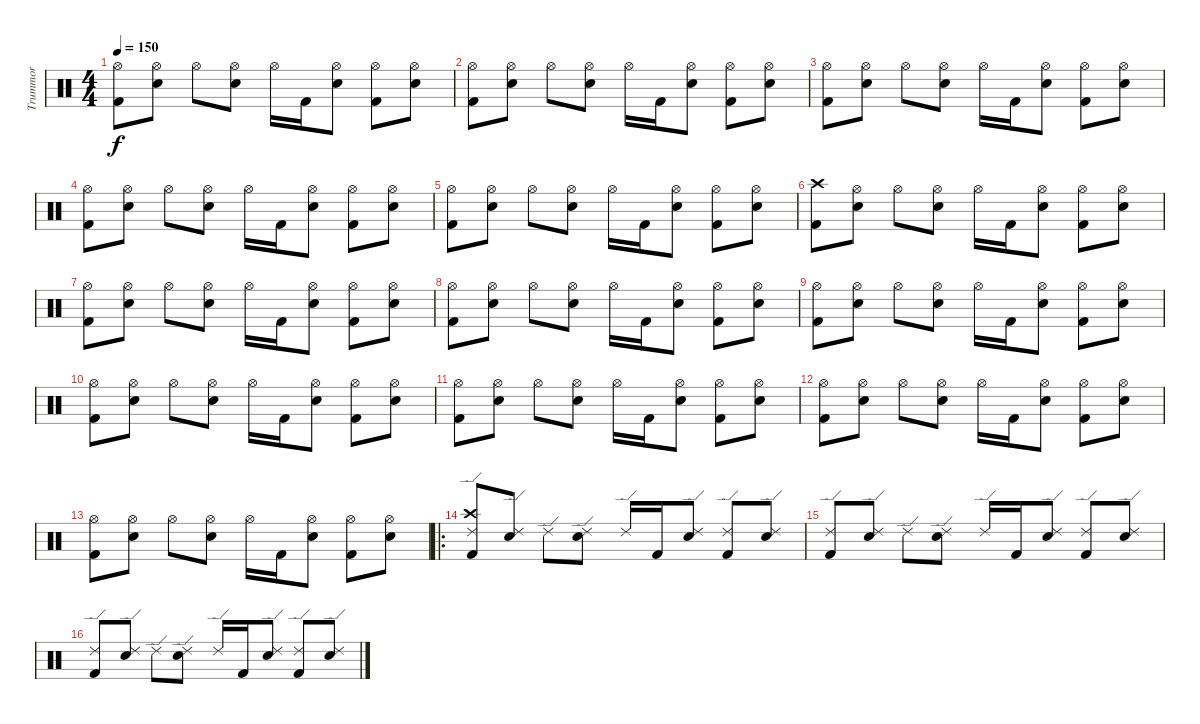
\track ("Trummor" "Trummor") {instrument percussion}
\staff {score}
\articulation defaults
\ts (4 4)
\tempo 150
\clef neutral
\ks c
("Hi-Hat (open)" "Kick (hit) 2").8{dy f} ("Hi-Hat (open)" "Snare (hit) 2").8 "Hi-Hat (open)".8 ("Hi-Hat (open)" "Snare (hit) 2").8 "Hi-Hat (open)".16 "Kick (hit) 2".16 ("Hi-Hat (open)" "Snare (hit) 2").8 ("Hi-Hat (open)" "Kick (hit) 2").8 ("Hi-Hat (open)" "Snare (hit) 2").8 |
("Hi-Hat (open)" "Kick (hit) 2").8 ("Hi-Hat (open)" "Snare (hit) 2").8 "Hi-Hat (open)".8 ("Hi-Hat (open)" "Snare (hit) 2").8 "Hi-Hat (open)".16 "Kick (hit) 2".16 ("Hi-Hat (open)" "Snare (hit) 2").8 ("Hi-Hat (open)" "Kick (hit) 2").8 ("Hi-Hat (open)" "Snare (hit) 2").8 |
("Hi-Hat (open)" "Kick (hit) 2").8 ("Hi-Hat (open)" "Snare (hit) 2").8 "Hi-Hat (open)".8 ("Hi-Hat (open)" "Snare (hit) 2").8 "Hi-Hat (open)".16 "Kick (hit) 2".16 ("Hi-Hat (open)" "Snare (hit) 2").8 ("Hi-Hat (open)" "Kick (hit) 2").8 ("Hi-Hat (open)" "Snare (hit) 2").8 |
("Hi-Hat (open)" "Kick (hit) 2").8 ("Hi-Hat (open)" "Snare (hit) 2").8 "Hi-Hat (open)".8 ("Hi-Hat (open)" "Snare (hit) 2").8 "Hi-Hat (open)".16 "Kick (hit) 2".16 ("Hi-Hat (open)" "Snare (hit) 2").8 ("Hi-Hat (open)" "Kick (hit) 2").8 ("Hi-Hat (open)" "Snare (hit) 2").8 |
("Hi-Hat (open)" "Kick (hit) 2").8 ("Hi-Hat (open)" "Snare (hit) 2").8 "Hi-Hat (open)".8 ("Hi-Hat (open)" "Snare (hit) 2").8 "Hi-Hat (open)".16 "Kick (hit) 2".16 ("Hi-Hat (open)" "Snare (hit) 2").8 ("Hi-Hat (open)" "Kick (hit) 2").8 ("Hi-Hat (open)" "Snare (hit) 2").8 |
("Crash high (hit)" "Kick (hit) 2").8 ("Hi-Hat (open)" "Snare (hit) 2").8 "Hi-Hat (open)".8 ("Hi-Hat (open)" "Snare (hit) 2").8 "Hi-Hat (open)".16 "Kick (hit) 2".16 ("Hi-Hat (open)" "Snare (hit) 2").8 ("Hi-Hat (open)" "Kick (hit) 2").8 ("Hi-Hat (open)" "Snare (hit) 2").8 |
("Hi-Hat (open)" "Kick (hit) 2").8 ("Hi-Hat (open)" "Snare (hit) 2").8 "Hi-Hat (open)".8 ("Hi-Hat (open)" "Snare (hit) 2").8 "Hi-Hat (open)".16 "Kick (hit) 2".16 ("Hi-Hat (open)" "Snare (hit) 2").8 ("Hi-Hat (open)" "Kick (hit) 2").8 ("Hi-Hat (open)" "Snare (hit) 2").8 |
("Hi-Hat (open)" "Kick (hit) 2").8 ("Hi-Hat (open)" "Snare (hit) 2").8 "Hi-Hat (open)".8 ("Hi-Hat (open)" "Snare (hit) 2").8 "Hi-Hat (open)".16 "Kick (hit) 2".16 ("Hi-Hat (open)" "Snare (hit) 2").8 ("Hi-Hat (open)" "Kick (hit) 2").8 ("Hi-Hat (open)" "Snare (hit) 2").8 |
("Hi-Hat (open)" "Kick (hit) 2").8 ("Hi-Hat (open)" "Snare (hit) 2").8 "Hi-Hat (open)".8 ("Hi-Hat (open)" "Snare (hit) 2").8 "Hi-Hat (open)".16 "Kick (hit) 2".16 ("Hi-Hat (open)" "Snare (hit) 2").8 ("Hi-Hat (open)" "Kick (hit) 2").8 ("Hi-Hat (open)" "Snare (hit) 2").8 |
("Hi-Hat (open)" "Kick (hit) 2").8 ("Hi-Hat (open)" "Snare (hit) 2").8 "Hi-Hat (open)".8 ("Hi-Hat (open)" "Snare (hit) 2").8 "Hi-Hat (open)".16 "Kick (hit) 2".16 ("Hi-Hat (open)" "Snare (hit) 2").8 ("Hi-Hat (open)" "Kick (hit) 2").8 ("Hi-Hat (open)" "Snare (hit) 2").8 |
("Hi-Hat (open)" "Kick (hit) 2").8 ("Hi-Hat (open)" "Snare (hit) 2").8 "Hi-Hat (open)".8 ("Hi-Hat (open)" "Snare (hit) 2").8 "Hi-Hat (open)".16 "Kick (hit) 2".16 ("Hi-Hat (open)" "Snare (hit) 2").8 ("Hi-Hat (open)" "Kick (hit) 2").8 ("Hi-Hat (open)" "Snare (hit) 2").8 |
("Hi-Hat (open)" "Kick (hit) 2").8 ("Hi-Hat (open)" "Snare (hit) 2").8 "Hi-Hat (open)".8 ("Hi-Hat (open)" "Snare (hit) 2").8 "Hi-Hat (open)".16 "Kick (hit) 2".16 ("Hi-Hat (open)" "Snare (hit) 2").8 ("Hi-Hat (open)" "Kick (hit) 2").8 ("Hi-Hat (open)" "Snare (hit) 2").8 |
("Hi-Hat (open)" "Kick (hit) 2").8 ("Hi-Hat (open)" "Snare (hit) 2").8 "Hi-Hat (open)".8 ("Hi-Hat (open)" "Snare (hit) 2").8 "Hi-Hat (open)".16 "Kick (hit) 2".16 ("Hi-Hat (open)" "Snare (hit) 2").8 ("Hi-Hat (open)" "Kick (hit) 2").8 ("Hi-Hat (open)" "Snare (hit) 2").8 |
\ro
("Ride (edge) 2" "Crash high (hit)" "Kick (hit) 2").8 ("Ride (edge) 2" "Snare (hit) 2").8 "Ride (edge) 2".8 ("Ride (edge) 2" "Snare (hit) 2").8 "Ride (edge) 2".16 "Kick (hit) 2".16 ("Ride (edge) 2" "Snare (hit) 2").8 ("Ride (edge) 2" "Kick (hit) 2").8 ("Ride (edge) 2" "Snare (hit) 2").8 |
("Ride (edge) 2" "Kick (hit) 2").8 ("Ride (edge) 2" "Snare (hit) 2").8 "Ride (edge) 2".8 ("Ride (edge) 2" "Snare (hit) 2").8 "Ride (edge) 2".16 "Kick (hit) 2".16 ("Ride (edge) 2" "Snare (hit) 2").8 ("Ride (edge) 2" "Kick (hit) 2").8 ("Ride (edge) 2" "Snare (hit) 2").8 |
("Ride (edge) 2" "Kick (hit) 2").8 ("Ride (edge) 2" "Snare (hit) 2").8 "Ride (edge) 2".8 ("Ride (edge) 2" "Snare (hit) 2").8 "Ride (edge) 2".16 "Kick (hit) 2".16 ("Ride (edge) 2" "Snare (hit) 2").8 ("Ride (edge) 2" "Kick (hit) 2").8 ("Ride (edge) 2" "Snare (hit) 2").8
